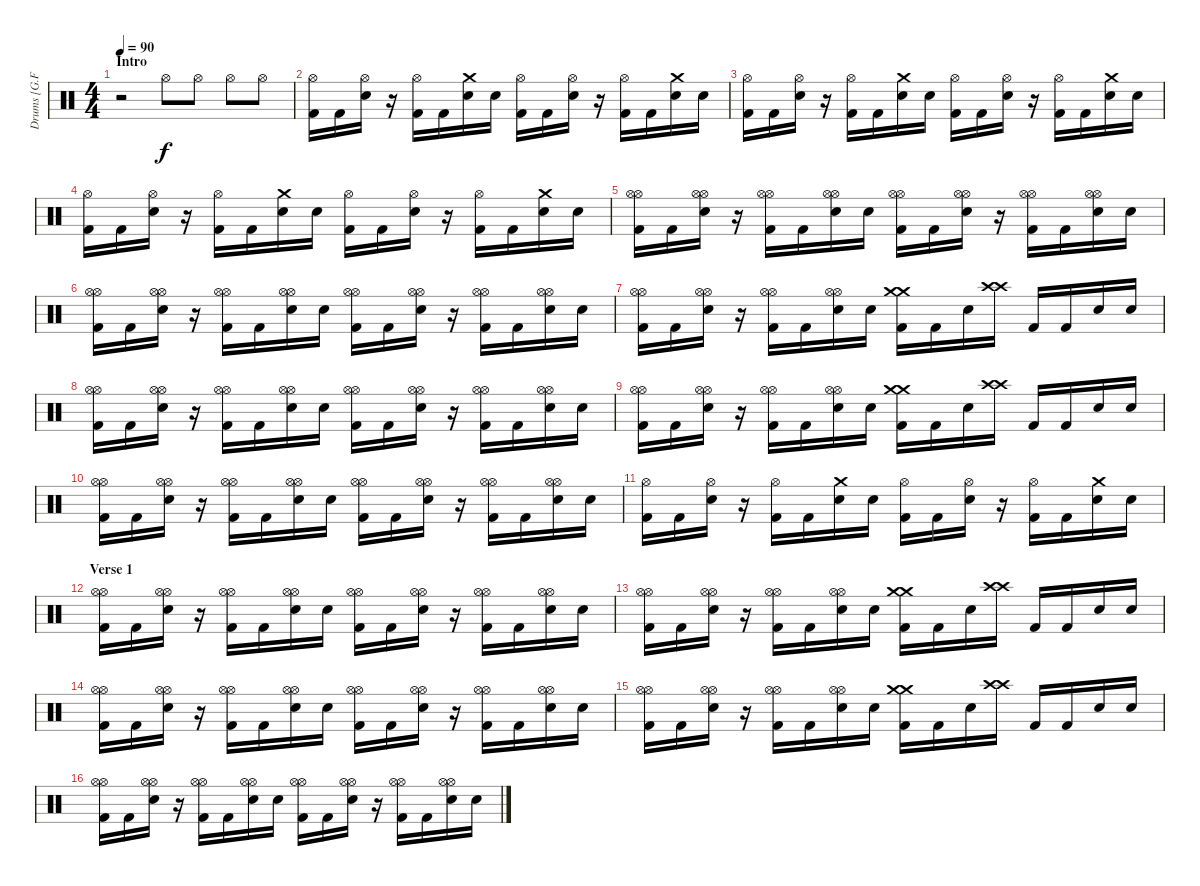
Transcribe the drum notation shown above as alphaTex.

\track ("Drums [G.Fish]" "Drums [G.F") {instrument percussion}
\staff {score}
\articulation defaults
\ts (4 4)
\section ("" "Intro")
\tempo 90
\clef neutral
\ks c
r.2{dy f} "Hi-Hat (open)".8 "Hi-Hat (open)".8 "Hi-Hat (open)".8 "Hi-Hat (open)".8 |
("Hi-Hat (open)" "Kick (hit) 2").16 "Kick (hit) 2".16 ("Hi-Hat (open)" "Snare (hit) 2").16 r.16 ("Hi-Hat (open)" "Kick (hit) 2").16 "Kick (hit) 2".16 ("Crash medium (hit)" "Snare (hit) 2").16 "Snare (hit) 2".16 ("Hi-Hat (open)" "Kick (hit) 2").16 "Kick (hit) 2".16 ("Hi-Hat (open)" "Snare (hit) 2").16 r.16 ("Hi-Hat (open)" "Kick (hit) 2").16 "Kick (hit) 2".16 ("Crash medium (hit)" "Snare (hit) 2").16 "Snare (hit) 2".16 |
("Hi-Hat (open)" "Kick (hit) 2").16 "Kick (hit) 2".16 ("Hi-Hat (open)" "Snare (hit) 2").16 r.16 ("Hi-Hat (open)" "Kick (hit) 2").16 "Kick (hit) 2".16 ("Crash medium (hit)" "Snare (hit) 2").16 "Snare (hit) 2".16 ("Hi-Hat (open)" "Kick (hit) 2").16 "Kick (hit) 2".16 ("Hi-Hat (open)" "Snare (hit) 2").16 r.16 ("Hi-Hat (open)" "Kick (hit) 2").16 "Kick (hit) 2".16 ("Crash medium (hit)" "Snare (hit) 2").16 "Snare (hit) 2".16 |
("Hi-Hat (open)" "Kick (hit) 2").16 "Kick (hit) 2".16 ("Hi-Hat (open)" "Snare (hit) 2").16 r.16 ("Hi-Hat (open)" "Kick (hit) 2").16 "Kick (hit) 2".16 ("Crash medium (hit)" "Snare (hit) 2").16 "Snare (hit) 2".16 ("Hi-Hat (open)" "Kick (hit) 2").16 "Kick (hit) 2".16 ("Hi-Hat (open)" "Snare (hit) 2").16 r.16 ("Hi-Hat (open)" "Kick (hit) 2").16 "Kick (hit) 2".16 ("Crash medium (hit)" "Snare (hit) 2").16 "Snare (hit) 2".16 |
("Hi-Hat (open)" "Hi-Hat (open)" "Kick (hit) 2").16 "Kick (hit) 2".16 ("Hi-Hat (open)" "Hi-Hat (open)" "Snare (hit) 2").16 r.16 ("Hi-Hat (open)" "Hi-Hat (open)" "Kick (hit) 2").16 "Kick (hit) 2".16 ("Hi-Hat (open)" "Hi-Hat (open)" "Snare (hit) 2").16 "Snare (hit) 2".16 ("Hi-Hat (open)" "Hi-Hat (open)" "Kick (hit) 2").16 "Kick (hit) 2".16 ("Hi-Hat (open)" "Hi-Hat (open)" "Snare (hit) 2").16 r.16 ("Hi-Hat (open)" "Hi-Hat (open)" "Kick (hit) 2").16 "Kick (hit) 2".16 ("Hi-Hat (open)" "Hi-Hat (open)" "Snare (hit) 2").16 "Snare (hit) 2".16 |
("Hi-Hat (open)" "Hi-Hat (open)" "Kick (hit) 2").16 "Kick (hit) 2".16 ("Hi-Hat (open)" "Hi-Hat (open)" "Snare (hit) 2").16 r.16 ("Hi-Hat (open)" "Hi-Hat (open)" "Kick (hit) 2").16 "Kick (hit) 2".16 ("Hi-Hat (open)" "Hi-Hat (open)" "Snare (hit) 2").16 "Snare (hit) 2".16 ("Hi-Hat (open)" "Hi-Hat (open)" "Kick (hit) 2").16 "Kick (hit) 2".16 ("Hi-Hat (open)" "Hi-Hat (open)" "Snare (hit) 2").16 r.16 ("Hi-Hat (open)" "Hi-Hat (open)" "Kick (hit) 2").16 "Kick (hit) 2".16 ("Hi-Hat (open)" "Hi-Hat (open)" "Snare (hit) 2").16 "Snare (hit) 2".16 |
("Hi-Hat (open)" "Hi-Hat (open)" "Kick (hit) 2").16 "Kick (hit) 2".16 ("Hi-Hat (open)" "Hi-Hat (open)" "Snare (hit) 2").16 r.16 ("Hi-Hat (open)" "Hi-Hat (open)" "Kick (hit) 2").16 "Kick (hit) 2".16 ("Hi-Hat (open)" "Hi-Hat (open)" "Snare (hit) 2").16 "Snare (hit) 2".16 ("Crash medium (hit)" "Crash medium (hit)" "Kick (hit) 2").16 "Kick (hit) 2".16 "Snare (hit) 2".16 ("Crash high (hit)" "Crash high (hit)").16 "Kick (hit) 2".16 "Kick (hit) 2".16 "Snare (hit) 2".16 "Snare (hit) 2".16 |
("Hi-Hat (open)" "Hi-Hat (open)" "Kick (hit) 2").16 "Kick (hit) 2".16 ("Hi-Hat (open)" "Hi-Hat (open)" "Snare (hit) 2").16 r.16 ("Hi-Hat (open)" "Hi-Hat (open)" "Kick (hit) 2").16 "Kick (hit) 2".16 ("Hi-Hat (open)" "Hi-Hat (open)" "Snare (hit) 2").16 "Snare (hit) 2".16 ("Hi-Hat (open)" "Hi-Hat (open)" "Kick (hit) 2").16 "Kick (hit) 2".16 ("Hi-Hat (open)" "Hi-Hat (open)" "Snare (hit) 2").16 r.16 ("Hi-Hat (open)" "Hi-Hat (open)" "Kick (hit) 2").16 "Kick (hit) 2".16 ("Hi-Hat (open)" "Hi-Hat (open)" "Snare (hit) 2").16 "Snare (hit) 2".16 |
("Hi-Hat (open)" "Hi-Hat (open)" "Kick (hit) 2").16 "Kick (hit) 2".16 ("Hi-Hat (open)" "Hi-Hat (open)" "Snare (hit) 2").16 r.16 ("Hi-Hat (open)" "Hi-Hat (open)" "Kick (hit) 2").16 "Kick (hit) 2".16 ("Hi-Hat (open)" "Hi-Hat (open)" "Snare (hit) 2").16 "Snare (hit) 2".16 ("Crash medium (hit)" "Crash medium (hit)" "Kick (hit) 2").16 "Kick (hit) 2".16 "Snare (hit) 2".16 ("Crash high (hit)" "Crash high (hit)").16 "Kick (hit) 2".16 "Kick (hit) 2".16 "Snare (hit) 2".16 "Snare (hit) 2".16 |
("Hi-Hat (open)" "Hi-Hat (open)" "Kick (hit) 2").16 "Kick (hit) 2".16 ("Hi-Hat (open)" "Hi-Hat (open)" "Snare (hit) 2").16 r.16 ("Hi-Hat (open)" "Hi-Hat (open)" "Kick (hit) 2").16 "Kick (hit) 2".16 ("Hi-Hat (open)" "Hi-Hat (open)" "Snare (hit) 2").16 "Snare (hit) 2".16 ("Hi-Hat (open)" "Hi-Hat (open)" "Kick (hit) 2").16 "Kick (hit) 2".16 ("Hi-Hat (open)" "Hi-Hat (open)" "Snare (hit) 2").16 r.16 ("Hi-Hat (open)" "Hi-Hat (open)" "Kick (hit) 2").16 "Kick (hit) 2".16 ("Hi-Hat (open)" "Hi-Hat (open)" "Snare (hit) 2").16 "Snare (hit) 2".16 |
("Hi-Hat (open)" "Kick (hit) 2").16 "Kick (hit) 2".16 ("Hi-Hat (open)" "Snare (hit) 2").16 r.16 ("Hi-Hat (open)" "Kick (hit) 2").16 "Kick (hit) 2".16 ("Crash medium (hit)" "Snare (hit) 2").16 "Snare (hit) 2".16 ("Hi-Hat (open)" "Kick (hit) 2").16 "Kick (hit) 2".16 ("Hi-Hat (open)" "Snare (hit) 2").16 r.16 ("Hi-Hat (open)" "Kick (hit) 2").16 "Kick (hit) 2".16 ("Crash medium (hit)" "Snare (hit) 2").16 "Snare (hit) 2".16 |
\section ("" "Verse 1")
("Hi-Hat (open)" "Hi-Hat (open)" "Kick (hit) 2").16 "Kick (hit) 2".16 ("Hi-Hat (open)" "Hi-Hat (open)" "Snare (hit) 2").16 r.16 ("Hi-Hat (open)" "Hi-Hat (open)" "Kick (hit) 2").16 "Kick (hit) 2".16 ("Hi-Hat (open)" "Hi-Hat (open)" "Snare (hit) 2").16 "Snare (hit) 2".16 ("Hi-Hat (open)" "Hi-Hat (open)" "Kick (hit) 2").16 "Kick (hit) 2".16 ("Hi-Hat (open)" "Hi-Hat (open)" "Snare (hit) 2").16 r.16 ("Hi-Hat (open)" "Hi-Hat (open)" "Kick (hit) 2").16 "Kick (hit) 2".16 ("Hi-Hat (open)" "Hi-Hat (open)" "Snare (hit) 2").16 "Snare (hit) 2".16 |
("Hi-Hat (open)" "Hi-Hat (open)" "Kick (hit) 2").16 "Kick (hit) 2".16 ("Hi-Hat (open)" "Hi-Hat (open)" "Snare (hit) 2").16 r.16 ("Hi-Hat (open)" "Hi-Hat (open)" "Kick (hit) 2").16 "Kick (hit) 2".16 ("Hi-Hat (open)" "Hi-Hat (open)" "Snare (hit) 2").16 "Snare (hit) 2".16 ("Crash medium (hit)" "Crash medium (hit)" "Kick (hit) 2").16 "Kick (hit) 2".16 "Snare (hit) 2".16 ("Crash high (hit)" "Crash high (hit)").16 "Kick (hit) 2".16 "Kick (hit) 2".16 "Snare (hit) 2".16 "Snare (hit) 2".16 |
("Hi-Hat (open)" "Hi-Hat (open)" "Kick (hit) 2").16 "Kick (hit) 2".16 ("Hi-Hat (open)" "Hi-Hat (open)" "Snare (hit) 2").16 r.16 ("Hi-Hat (open)" "Hi-Hat (open)" "Kick (hit) 2").16 "Kick (hit) 2".16 ("Hi-Hat (open)" "Hi-Hat (open)" "Snare (hit) 2").16 "Snare (hit) 2".16 ("Hi-Hat (open)" "Hi-Hat (open)" "Kick (hit) 2").16 "Kick (hit) 2".16 ("Hi-Hat (open)" "Hi-Hat (open)" "Snare (hit) 2").16 r.16 ("Hi-Hat (open)" "Hi-Hat (open)" "Kick (hit) 2").16 "Kick (hit) 2".16 ("Hi-Hat (open)" "Hi-Hat (open)" "Snare (hit) 2").16 "Snare (hit) 2".16 |
("Hi-Hat (open)" "Hi-Hat (open)" "Kick (hit) 2").16 "Kick (hit) 2".16 ("Hi-Hat (open)" "Hi-Hat (open)" "Snare (hit) 2").16 r.16 ("Hi-Hat (open)" "Hi-Hat (open)" "Kick (hit) 2").16 "Kick (hit) 2".16 ("Hi-Hat (open)" "Hi-Hat (open)" "Snare (hit) 2").16 "Snare (hit) 2".16 ("Crash medium (hit)" "Crash medium (hit)" "Kick (hit) 2").16 "Kick (hit) 2".16 "Snare (hit) 2".16 ("Crash high (hit)" "Crash high (hit)").16 "Kick (hit) 2".16 "Kick (hit) 2".16 "Snare (hit) 2".16 "Snare (hit) 2".16 |
("Hi-Hat (open)" "Hi-Hat (open)" "Kick (hit) 2").16 "Kick (hit) 2".16 ("Hi-Hat (open)" "Hi-Hat (open)" "Snare (hit) 2").16 r.16 ("Hi-Hat (open)" "Hi-Hat (open)" "Kick (hit) 2").16 "Kick (hit) 2".16 ("Hi-Hat (open)" "Hi-Hat (open)" "Snare (hit) 2").16 "Snare (hit) 2".16 ("Hi-Hat (open)" "Hi-Hat (open)" "Kick (hit) 2").16 "Kick (hit) 2".16 ("Hi-Hat (open)" "Hi-Hat (open)" "Snare (hit) 2").16 r.16 ("Hi-Hat (open)" "Hi-Hat (open)" "Kick (hit) 2").16 "Kick (hit) 2".16 ("Hi-Hat (open)" "Hi-Hat (open)" "Snare (hit) 2").16 "Snare (hit) 2".16
